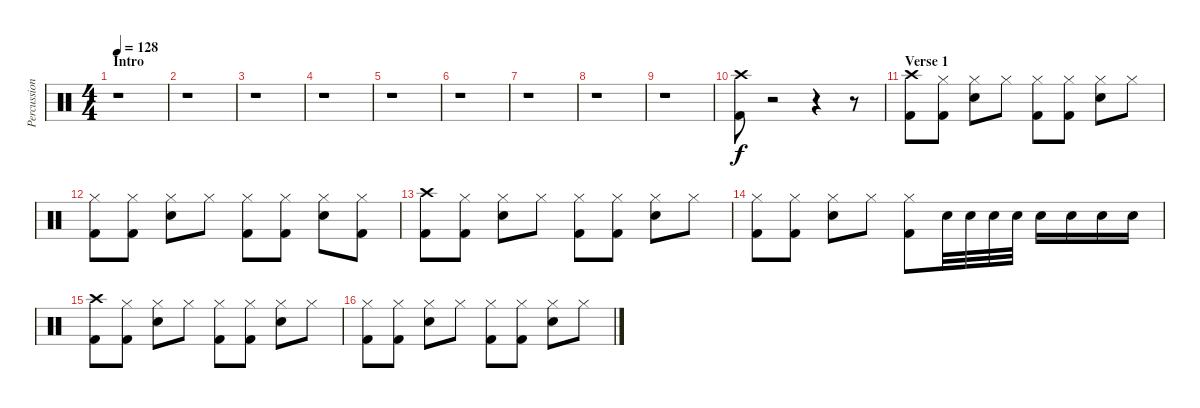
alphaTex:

\track ("Percussion" "Percussion") {instrument percussion}
\staff {score}
\articulation defaults
\ts (4 4)
\section ("" "Intro")
\tempo 128
\clef neutral
\ks c
r.1{dy f} |
r.1 |
r.1 |
r.1 |
r.1 |
r.1 |
r.1 |
r.1 |
r.1 |
("Crash high (hit)" "Kick (hit) 2").8 r.2 r.4 r.8 |
\section ("" "Verse 1")
("Crash high (hit)" "Kick (hit) 2").8 ("Hi-Hat (closed)" "Kick (hit) 2").8 ("Hi-Hat (closed)" "Snare (hit) 2").8 "Hi-Hat (closed)".8 ("Hi-Hat (closed)" "Kick (hit) 2").8 ("Hi-Hat (closed)" "Kick (hit) 2").8 ("Hi-Hat (closed)" "Snare (hit) 2").8 "Hi-Hat (closed)".8 |
("Hi-Hat (closed)" "Kick (hit) 2").8 ("Hi-Hat (closed)" "Kick (hit) 2").8 ("Hi-Hat (closed)" "Snare (hit) 2").8 "Hi-Hat (closed)".8 ("Hi-Hat (closed)" "Kick (hit) 2").8 ("Hi-Hat (closed)" "Kick (hit) 2").8 ("Hi-Hat (closed)" "Snare (hit) 2").8 ("Hi-Hat (closed)" "Kick (hit) 2").8 |
("Crash high (hit)" "Kick (hit) 2").8 ("Hi-Hat (closed)" "Kick (hit) 2").8 ("Hi-Hat (closed)" "Snare (hit) 2").8 "Hi-Hat (closed)".8 ("Hi-Hat (closed)" "Kick (hit) 2").8 ("Hi-Hat (closed)" "Kick (hit) 2").8 ("Hi-Hat (closed)" "Snare (hit) 2").8 "Hi-Hat (closed)".8 |
("Hi-Hat (closed)" "Kick (hit) 2").8 ("Hi-Hat (closed)" "Kick (hit) 2").8 ("Hi-Hat (closed)" "Snare (hit) 2").8 "Hi-Hat (closed)".8 ("Hi-Hat (closed)" "Kick (hit) 2").8 "Snare (hit) 2".32 "Snare (hit) 2".32 "Snare (hit) 2".32 "Snare (hit) 2".32 "Snare (hit) 2".16 "Snare (hit) 2".16 "Snare (hit) 2".16 "Snare (hit) 2".16 |
("Crash high (hit)" "Kick (hit) 2").8 ("Hi-Hat (closed)" "Kick (hit) 2").8 ("Hi-Hat (closed)" "Snare (hit) 2").8 "Hi-Hat (closed)".8 ("Hi-Hat (closed)" "Kick (hit) 2").8 ("Hi-Hat (closed)" "Kick (hit) 2").8 ("Hi-Hat (closed)" "Snare (hit) 2").8 "Hi-Hat (closed)".8 |
("Hi-Hat (closed)" "Kick (hit) 2").8 ("Hi-Hat (closed)" "Kick (hit) 2").8 ("Hi-Hat (closed)" "Snare (hit) 2").8 "Hi-Hat (closed)".8 ("Hi-Hat (closed)" "Kick (hit) 2").8 ("Hi-Hat (closed)" "Kick (hit) 2").8 ("Hi-Hat (closed)" "Snare (hit) 2").8 "Hi-Hat (closed)".8
